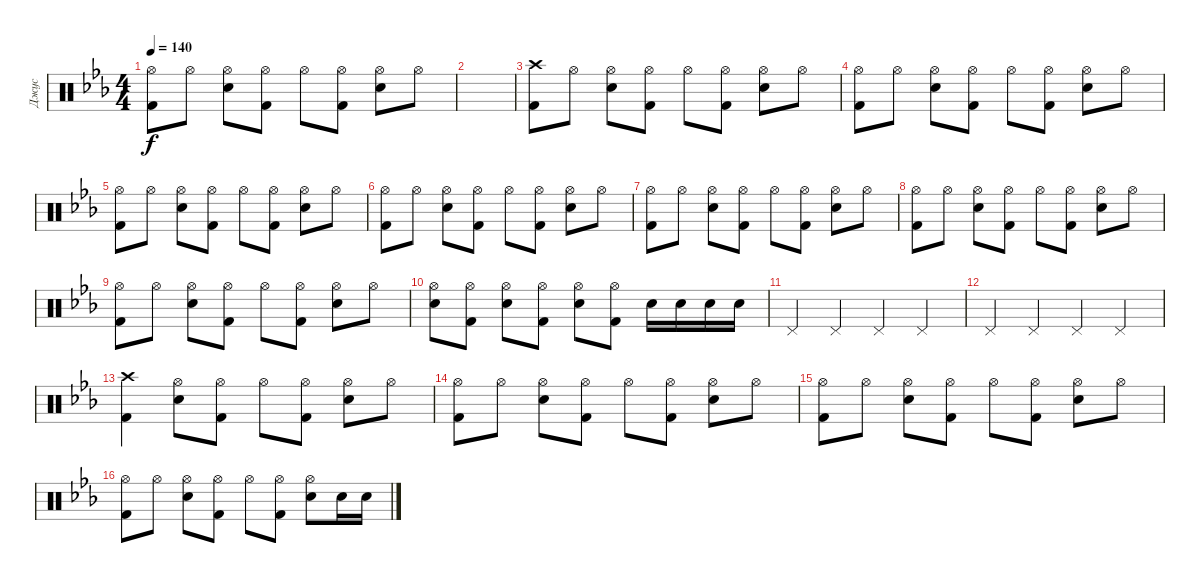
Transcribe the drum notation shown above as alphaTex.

\track ("Джус" "Джус") {instrument percussion}
\staff {score}
\articulation defaults
\ts (4 4)
\tempo 140
\clef neutral
\ks eb
("Hi-Hat (open)" "Kick (hit) 2").8{dy f} "Hi-Hat (open)".8 ("Hi-Hat (open)" "Electric Snare (hit)").8 ("Hi-Hat (open)" "Kick (hit) 2").8 "Hi-Hat (open)".8 ("Hi-Hat (open)" "Kick (hit) 2").8 ("Hi-Hat (open)" "Electric Snare (hit)").8 "Hi-Hat (open)".8 |
|
("Crash high (hit)" "Kick (hit) 2").8 "Hi-Hat (open)".8 ("Hi-Hat (open)" "Electric Snare (hit)").8 ("Hi-Hat (open)" "Kick (hit) 2").8 "Hi-Hat (open)".8 ("Hi-Hat (open)" "Kick (hit) 2").8 ("Hi-Hat (open)" "Electric Snare (hit)").8 "Hi-Hat (open)".8 |
("Hi-Hat (open)" "Kick (hit) 2").8 "Hi-Hat (open)".8 ("Hi-Hat (open)" "Electric Snare (hit)").8 ("Hi-Hat (open)" "Kick (hit) 2").8 "Hi-Hat (open)".8 ("Hi-Hat (open)" "Kick (hit) 2").8 ("Hi-Hat (open)" "Electric Snare (hit)").8 "Hi-Hat (open)".8 |
("Hi-Hat (open)" "Kick (hit) 2").8 "Hi-Hat (open)".8 ("Hi-Hat (open)" "Electric Snare (hit)").8 ("Hi-Hat (open)" "Kick (hit) 2").8 "Hi-Hat (open)".8 ("Hi-Hat (open)" "Kick (hit) 2").8 ("Hi-Hat (open)" "Electric Snare (hit)").8 "Hi-Hat (open)".8 |
("Hi-Hat (open)" "Kick (hit) 2").8 "Hi-Hat (open)".8 ("Hi-Hat (open)" "Electric Snare (hit)").8 ("Hi-Hat (open)" "Kick (hit) 2").8 "Hi-Hat (open)".8 ("Hi-Hat (open)" "Kick (hit) 2").8 ("Hi-Hat (open)" "Electric Snare (hit)").8 "Hi-Hat (open)".8 |
("Hi-Hat (open)" "Kick (hit) 2").8 "Hi-Hat (open)".8 ("Hi-Hat (open)" "Electric Snare (hit)").8 ("Hi-Hat (open)" "Kick (hit) 2").8 "Hi-Hat (open)".8 ("Hi-Hat (open)" "Kick (hit) 2").8 ("Hi-Hat (open)" "Electric Snare (hit)").8 "Hi-Hat (open)".8 |
("Hi-Hat (open)" "Kick (hit) 2").8 "Hi-Hat (open)".8 ("Hi-Hat (open)" "Electric Snare (hit)").8 ("Hi-Hat (open)" "Kick (hit) 2").8 "Hi-Hat (open)".8 ("Hi-Hat (open)" "Kick (hit) 2").8 ("Hi-Hat (open)" "Electric Snare (hit)").8 "Hi-Hat (open)".8 |
("Hi-Hat (open)" "Kick (hit) 2").8 "Hi-Hat (open)".8 ("Hi-Hat (open)" "Electric Snare (hit)").8 ("Hi-Hat (open)" "Kick (hit) 2").8 "Hi-Hat (open)".8 ("Hi-Hat (open)" "Kick (hit) 2").8 ("Hi-Hat (open)" "Electric Snare (hit)").8 "Hi-Hat (open)".8 |
("Hi-Hat (open)" "Electric Snare (hit)").8 ("Hi-Hat (open)" "Kick (hit) 2").8 ("Hi-Hat (open)" "Electric Snare (hit)").8 ("Hi-Hat (open)" "Kick (hit) 2").8 ("Hi-Hat (open)" "Electric Snare (hit)").8 ("Hi-Hat (open)" "Kick (hit) 2").8 "Electric Snare (hit)".16 "Electric Snare (hit)".16 "Electric Snare (hit)".16 "Electric Snare (hit)".16 |
"Pedal Hi-Hat (hit)".4{volume 8} "Pedal Hi-Hat (hit)".4 "Pedal Hi-Hat (hit)".4 "Pedal Hi-Hat (hit)".4 |
"Pedal Hi-Hat (hit)".4 "Pedal Hi-Hat (hit)".4 "Pedal Hi-Hat (hit)".4 "Pedal Hi-Hat (hit)".4 |
("Crash high (hit)" "Kick (hit) 2").4{volume 16} ("Hi-Hat (open)" "Electric Snare (hit)").8 ("Hi-Hat (open)" "Kick (hit) 2").8 "Hi-Hat (open)".8 ("Hi-Hat (open)" "Kick (hit) 2").8 ("Hi-Hat (open)" "Electric Snare (hit)").8 "Hi-Hat (open)".8 |
("Hi-Hat (open)" "Kick (hit) 2").8 "Hi-Hat (open)".8 ("Hi-Hat (open)" "Electric Snare (hit)").8 ("Hi-Hat (open)" "Kick (hit) 2").8 "Hi-Hat (open)".8 ("Hi-Hat (open)" "Kick (hit) 2").8 ("Hi-Hat (open)" "Electric Snare (hit)").8 "Hi-Hat (open)".8 |
("Hi-Hat (open)" "Kick (hit) 2").8 "Hi-Hat (open)".8 ("Hi-Hat (open)" "Electric Snare (hit)").8 ("Hi-Hat (open)" "Kick (hit) 2").8 "Hi-Hat (open)".8 ("Hi-Hat (open)" "Kick (hit) 2").8 ("Hi-Hat (open)" "Electric Snare (hit)").8 "Hi-Hat (open)".8 |
("Hi-Hat (open)" "Kick (hit) 2").8 "Hi-Hat (open)".8 ("Hi-Hat (open)" "Electric Snare (hit)").8 ("Hi-Hat (open)" "Kick (hit) 2").8 "Hi-Hat (open)".8 ("Hi-Hat (open)" "Kick (hit) 2").8 ("Hi-Hat (open)" "Electric Snare (hit)").8 "Electric Snare (hit)".16 "Electric Snare (hit)".16
